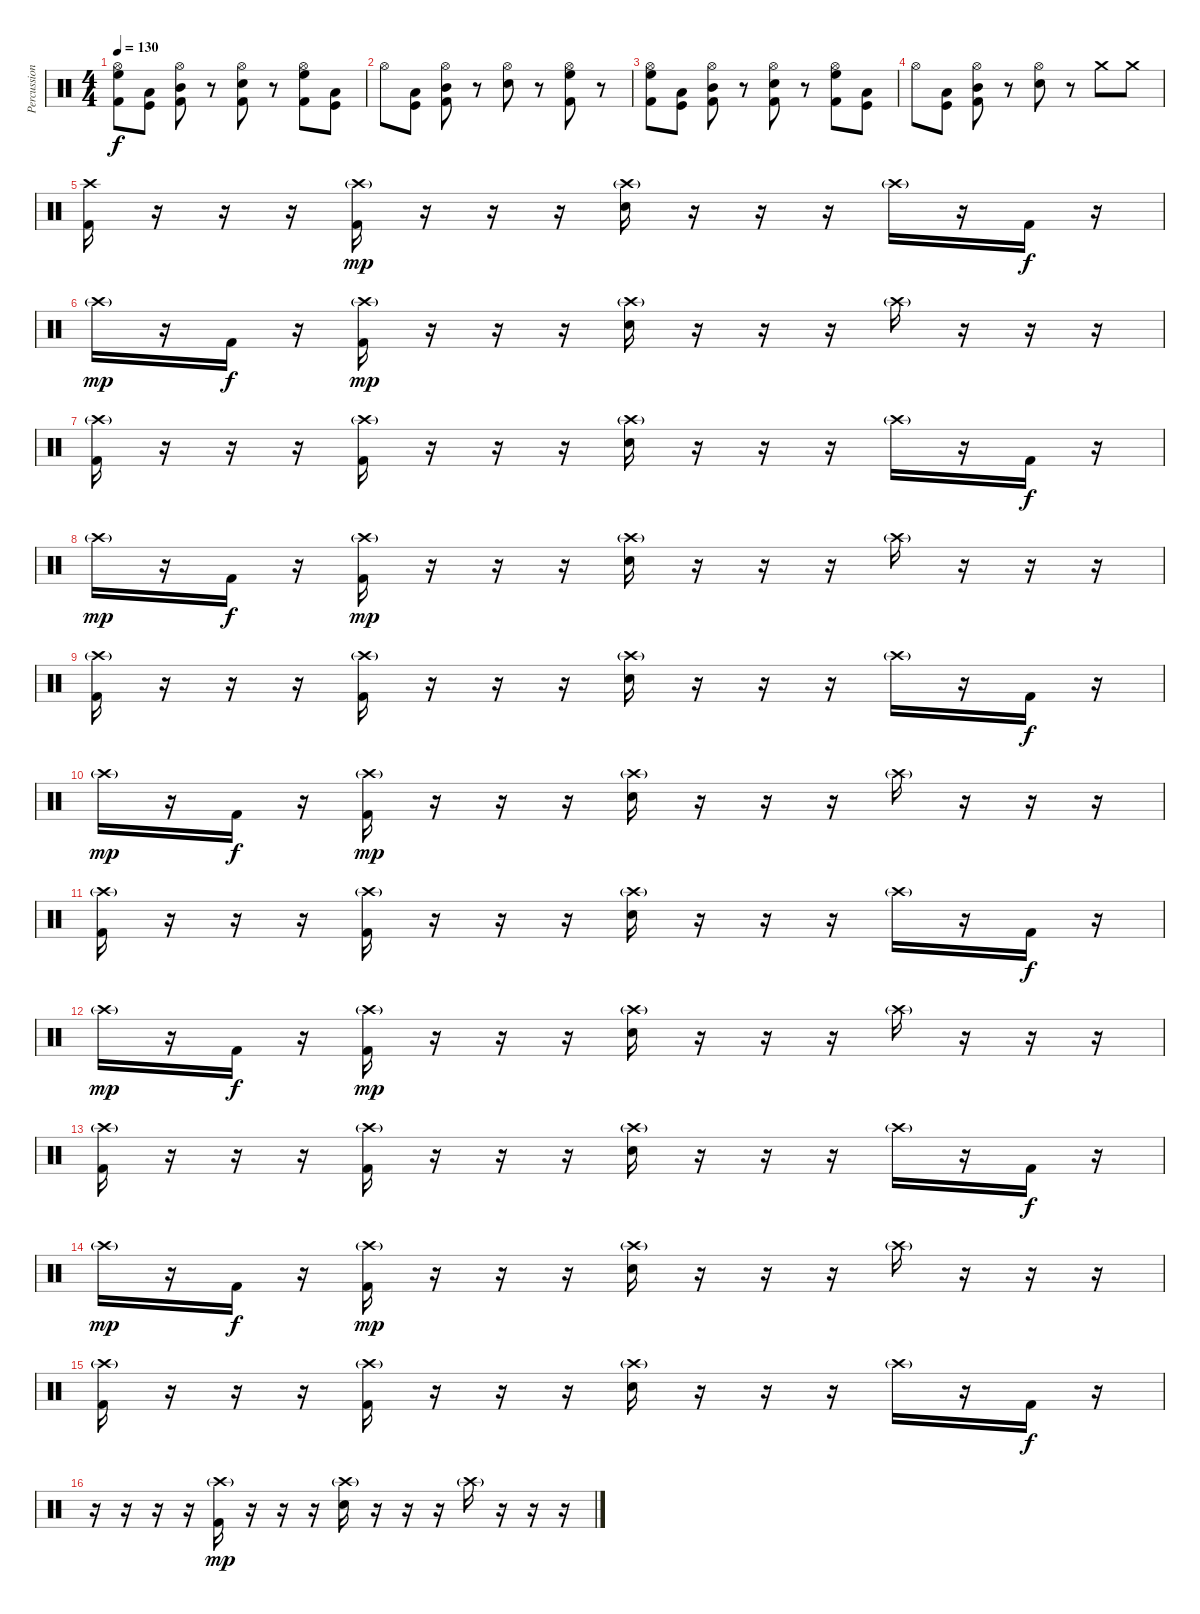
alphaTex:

\track ("Percussion" "Percussion") {instrument percussion}
\staff {score}
\articulation defaults
\ts (4 4)
\tempo 130
\clef neutral
\ks c
("Hi-Hat (open)" "High Floor Tom (hit)" "Kick (hit) 2").8{dy f} ("Low Tom (hit)" "Kick (hit)").8 ("Hi-Hat (open)" "Mid Tom (hit)" "Kick (hit) 2").8 r.8 ("Hi-Hat (open)" "Snare (hit) 2" "Kick (hit) 2").8 r.8 ("Hi-Hat (open)" "High Floor Tom (hit)" "Kick (hit) 2").8 ("Low Tom (hit)" "Kick (hit)").8 |
"Hi-Hat (open)".8 ("Low Tom (hit)" "Kick (hit)").8 ("Hi-Hat (open)" "Mid Tom (hit)" "Kick (hit) 2").8 r.8 ("Hi-Hat (open)" "Snare (hit) 2").8 r.8 ("Hi-Hat (open)" "High Floor Tom (hit)" "Kick (hit) 2").8 r.8 |
("Hi-Hat (open)" "High Floor Tom (hit)" "Kick (hit) 2").8 ("Low Tom (hit)" "Kick (hit)").8 ("Hi-Hat (open)" "Mid Tom (hit)" "Kick (hit) 2").8 r.8 ("Hi-Hat (open)" "Snare (hit) 2" "Kick (hit) 2").8 r.8 ("Hi-Hat (open)" "High Floor Tom (hit)" "Kick (hit) 2").8 ("Low Tom (hit)" "Kick (hit)").8 |
"Hi-Hat (open)".8 ("Low Tom (hit)" "Kick (hit)").8 ("Hi-Hat (open)" "Mid Tom (hit)" "Kick (hit) 2").8 r.8 ("Hi-Hat (open)" "Snare (hit) 2").8 r.8 "Crash medium (hit)".8 "Crash medium (hit)".8 |
("Crash high (hit)" "Kick (hit) 2").16 r.16 r.16 r.16 ("Crash high (hit)"{g} "Kick (hit) 2").16{dy mp} r.16 r.16 r.16 ("Crash high (hit)"{g} "Snare (hit) 2").16 r.16 r.16 r.16 "Crash high (hit)"{g}.16 r.16 "Kick (hit) 2".16{dy f} r.16 |
"Crash high (hit)"{g}.16{dy mp} r.16 "Kick (hit) 2".16{dy f} r.16 ("Crash high (hit)"{g} "Kick (hit) 2").16{dy mp} r.16 r.16 r.16 ("Crash high (hit)"{g} "Snare (hit) 2").16 r.16 r.16 r.16 "Crash high (hit)"{g}.16 r.16 r.16 r.16 |
("Crash high (hit)"{g} "Kick (hit) 2").16 r.16 r.16 r.16 ("Crash high (hit)"{g} "Kick (hit) 2").16 r.16 r.16 r.16 ("Crash high (hit)"{g} "Snare (hit) 2").16 r.16 r.16 r.16 "Crash high (hit)"{g}.16 r.16 "Kick (hit) 2".16{dy f} r.16 |
"Crash high (hit)"{g}.16{dy mp} r.16 "Kick (hit) 2".16{dy f} r.16 ("Crash high (hit)"{g} "Kick (hit) 2").16{dy mp} r.16 r.16 r.16 ("Crash high (hit)"{g} "Snare (hit) 2").16 r.16 r.16 r.16 "Crash high (hit)"{g}.16 r.16 r.16 r.16 |
("Crash high (hit)"{g} "Kick (hit) 2").16 r.16 r.16 r.16 ("Crash high (hit)"{g} "Kick (hit) 2").16 r.16 r.16 r.16 ("Crash high (hit)"{g} "Snare (hit) 2").16 r.16 r.16 r.16 "Crash high (hit)"{g}.16 r.16 "Kick (hit) 2".16{dy f} r.16 |
"Crash high (hit)"{g}.16{dy mp} r.16 "Kick (hit) 2".16{dy f} r.16 ("Crash high (hit)"{g} "Kick (hit) 2").16{dy mp} r.16 r.16 r.16 ("Crash high (hit)"{g} "Snare (hit) 2").16 r.16 r.16 r.16 "Crash high (hit)"{g}.16 r.16 r.16 r.16 |
("Crash high (hit)"{g} "Kick (hit) 2").16 r.16 r.16 r.16 ("Crash high (hit)"{g} "Kick (hit) 2").16 r.16 r.16 r.16 ("Crash high (hit)"{g} "Snare (hit) 2").16 r.16 r.16 r.16 "Crash high (hit)"{g}.16 r.16 "Kick (hit) 2".16{dy f} r.16 |
"Crash high (hit)"{g}.16{dy mp} r.16 "Kick (hit) 2".16{dy f} r.16 ("Crash high (hit)"{g} "Kick (hit) 2").16{dy mp} r.16 r.16 r.16 ("Crash high (hit)"{g} "Snare (hit) 2").16 r.16 r.16 r.16 "Crash high (hit)"{g}.16 r.16 r.16 r.16 |
("Crash high (hit)"{g} "Kick (hit) 2").16 r.16 r.16 r.16 ("Crash high (hit)"{g} "Kick (hit) 2").16 r.16 r.16 r.16 ("Crash high (hit)"{g} "Snare (hit) 2").16 r.16 r.16 r.16 "Crash high (hit)"{g}.16 r.16 "Kick (hit) 2".16{dy f} r.16 |
"Crash high (hit)"{g}.16{dy mp} r.16 "Kick (hit) 2".16{dy f} r.16 ("Crash high (hit)"{g} "Kick (hit) 2").16{dy mp} r.16 r.16 r.16 ("Crash high (hit)"{g} "Snare (hit) 2").16 r.16 r.16 r.16 "Crash high (hit)"{g}.16 r.16 r.16 r.16 |
("Crash high (hit)"{g} "Kick (hit) 2").16 r.16 r.16 r.16 ("Crash high (hit)"{g} "Kick (hit) 2").16 r.16 r.16 r.16 ("Crash high (hit)"{g} "Snare (hit) 2").16 r.16 r.16 r.16 "Crash high (hit)"{g}.16 r.16 "Kick (hit) 2".16{dy f} r.16 |
r.16 r.16 r.16 r.16 ("Crash high (hit)"{g} "Kick (hit) 2").16{dy mp} r.16 r.16 r.16 ("Crash high (hit)"{g} "Snare (hit) 2").16 r.16 r.16 r.16 "Crash high (hit)"{g}.16 r.16 r.16 r.16
